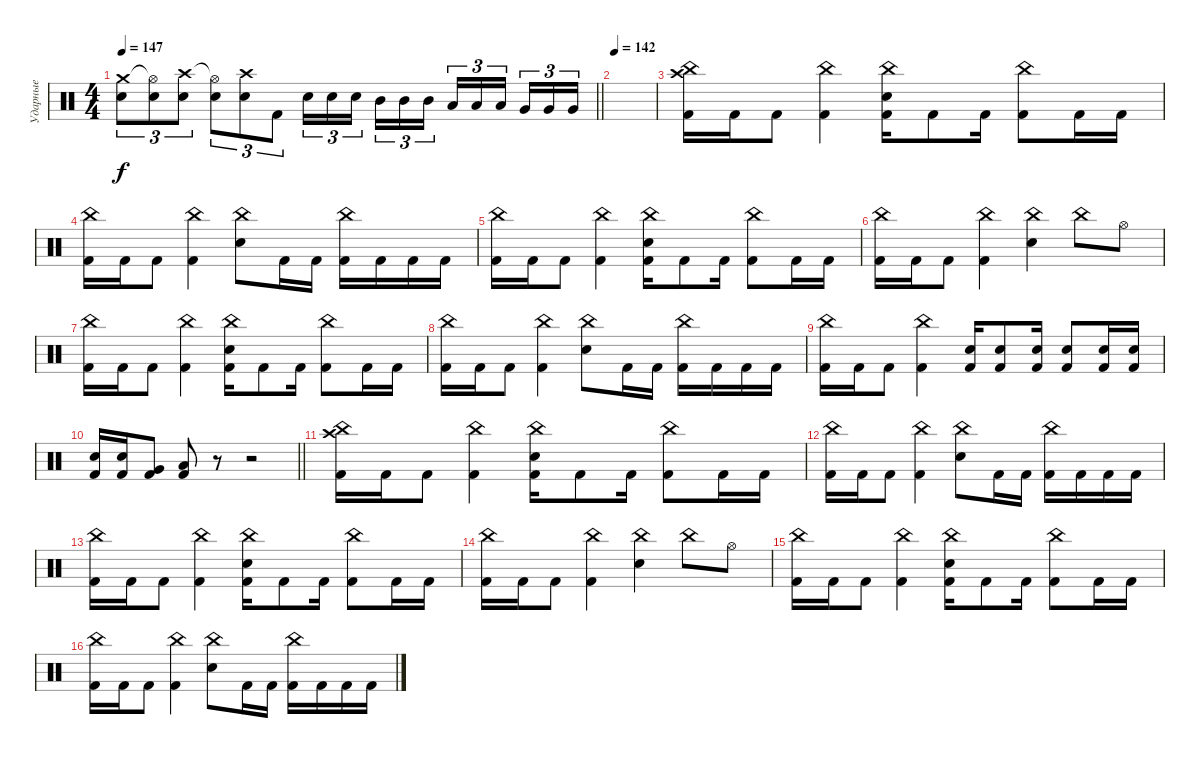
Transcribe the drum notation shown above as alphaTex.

\track ("Ударные" "Ударные") {instrument percussion}
\staff {score}
\articulation defaults
\ts (4 4)
\tempo 147
\clef neutral
\barLineRight lightlight
\ks c
("Crash medium (hit)" "Electric Snare (hit)").8{tu (3 2) dy f} ("Hi-Hat (open)"{t} "Electric Snare (hit)").8{tu (3 2)} ("Crash high (hit)" "Electric Snare (hit)").8{tu (3 2)} ("Hi-Hat (open)"{t} "Electric Snare (hit)").8{tu (3 2)} ("Crash high (hit)" "Electric Snare (hit)").8{tu (3 2)} "Kick (hit) 2".8{tu (3 2)} "Electric Snare (hit)".16{tu (3 2)} "Electric Snare (hit)".16{tu (3 2)} "Electric Snare (hit)".16{tu (3 2) beam splitsecondary} "Mid Tom (hit)".16{tu (3 2)} "Mid Tom (hit)".16{tu (3 2)} "Mid Tom (hit)".16{tu (3 2)} "Low Tom (hit)".16{tu (3 2)} "Low Tom (hit)".16{tu (3 2)} "Low Tom (hit)".16{tu (3 2) beam splitsecondary} "Very Low Tom (hit)".16{tu (3 2)} "Very Low Tom (hit)".16{tu (3 2)} "Very Low Tom (hit)".16{tu (3 2)} |
\tempo 142
|
("China (hit)" "Crash high (hit)" "Kick (hit) 2").16 "Kick (hit) 2".16 "Kick (hit) 2".8 ("China (hit)" "Kick (hit) 2").4 ("China (hit)" "Electric Snare (hit)" "Kick (hit) 2").16 "Kick (hit) 2".8 "Kick (hit) 2".16 ("China (hit)" "Kick (hit) 2").8 "Kick (hit) 2".16 "Kick (hit) 2".16 |
("China (hit)" "Kick (hit) 2").16 "Kick (hit) 2".16 "Kick (hit) 2".8 ("China (hit)" "Kick (hit) 2").4 ("China (hit)" "Electric Snare (hit)").8 "Kick (hit) 2".16 "Kick (hit) 2".16 ("China (hit)" "Kick (hit) 2").16 "Kick (hit) 2".16 "Kick (hit) 2".16 "Kick (hit) 2".16 |
("China (hit)" "Kick (hit) 2").16 "Kick (hit) 2".16 "Kick (hit) 2".8 ("China (hit)" "Kick (hit) 2").4 ("China (hit)" "Electric Snare (hit)" "Kick (hit) 2").16 "Kick (hit) 2".8 "Kick (hit) 2".16 ("China (hit)" "Kick (hit) 2").8 "Kick (hit) 2".16 "Kick (hit) 2".16 |
("China (hit)" "Kick (hit) 2").16 "Kick (hit) 2".16 "Kick (hit) 2".8 ("China (hit)" "Kick (hit) 2").4 ("China (hit)" "Electric Snare (hit)").4 "China (hit)".8 "Hi-Hat (open)".8 |
("China (hit)" "Kick (hit) 2").16 "Kick (hit) 2".16 "Kick (hit) 2".8 ("China (hit)" "Kick (hit) 2").4 ("China (hit)" "Electric Snare (hit)" "Kick (hit) 2").16 "Kick (hit) 2".8 "Kick (hit) 2".16 ("China (hit)" "Kick (hit) 2").8 "Kick (hit) 2".16 "Kick (hit) 2".16 |
("China (hit)" "Kick (hit) 2").16 "Kick (hit) 2".16 "Kick (hit) 2".8 ("China (hit)" "Kick (hit) 2").4 ("China (hit)" "Electric Snare (hit)").8 "Kick (hit) 2".16 "Kick (hit) 2".16 ("China (hit)" "Kick (hit) 2").16 "Kick (hit) 2".16 "Kick (hit) 2".16 "Kick (hit) 2".16 |
("China (hit)" "Kick (hit) 2").16 "Kick (hit) 2".16 "Kick (hit) 2".8 ("China (hit)" "Kick (hit) 2").4 ("Electric Snare (hit)" "Kick (hit) 2").16 ("Electric Snare (hit)" "Kick (hit) 2").8 ("Electric Snare (hit)" "Kick (hit) 2").16 ("Electric Snare (hit)" "Kick (hit) 2").8 ("Electric Snare (hit)" "Kick (hit) 2").16 ("Electric Snare (hit)" "Kick (hit) 2").16 |
\barLineRight lightlight
("Electric Snare (hit)" "Kick (hit) 2").16 ("Electric Snare (hit)" "Kick (hit) 2").16 ("Very Low Tom (hit)" "Kick (hit) 2").8 ("Low Floor Tom (hit)" "Kick (hit) 2").8 r.8 r.2 |
("China (hit)" "Crash high (hit)" "Kick (hit) 2").16 "Kick (hit) 2".16 "Kick (hit) 2".8 ("China (hit)" "Kick (hit) 2").4 ("China (hit)" "Electric Snare (hit)" "Kick (hit) 2").16 "Kick (hit) 2".8 "Kick (hit) 2".16 ("China (hit)" "Kick (hit) 2").8 "Kick (hit) 2".16 "Kick (hit) 2".16 |
("China (hit)" "Kick (hit) 2").16 "Kick (hit) 2".16 "Kick (hit) 2".8 ("China (hit)" "Kick (hit) 2").4 ("China (hit)" "Electric Snare (hit)").8 "Kick (hit) 2".16 "Kick (hit) 2".16 ("China (hit)" "Kick (hit) 2").16 "Kick (hit) 2".16 "Kick (hit) 2".16 "Kick (hit) 2".16 |
("China (hit)" "Kick (hit) 2").16 "Kick (hit) 2".16 "Kick (hit) 2".8 ("China (hit)" "Kick (hit) 2").4 ("China (hit)" "Electric Snare (hit)" "Kick (hit) 2").16 "Kick (hit) 2".8 "Kick (hit) 2".16 ("China (hit)" "Kick (hit) 2").8 "Kick (hit) 2".16 "Kick (hit) 2".16 |
("China (hit)" "Kick (hit) 2").16 "Kick (hit) 2".16 "Kick (hit) 2".8 ("China (hit)" "Kick (hit) 2").4 ("China (hit)" "Electric Snare (hit)").4 "China (hit)".8 "Hi-Hat (open)".8 |
("China (hit)" "Kick (hit) 2").16 "Kick (hit) 2".16 "Kick (hit) 2".8 ("China (hit)" "Kick (hit) 2").4 ("China (hit)" "Electric Snare (hit)" "Kick (hit) 2").16 "Kick (hit) 2".8 "Kick (hit) 2".16 ("China (hit)" "Kick (hit) 2").8 "Kick (hit) 2".16 "Kick (hit) 2".16 |
("China (hit)" "Kick (hit) 2").16 "Kick (hit) 2".16 "Kick (hit) 2".8 ("China (hit)" "Kick (hit) 2").4 ("China (hit)" "Electric Snare (hit)").8 "Kick (hit) 2".16 "Kick (hit) 2".16 ("China (hit)" "Kick (hit) 2").16 "Kick (hit) 2".16 "Kick (hit) 2".16 "Kick (hit) 2".16
